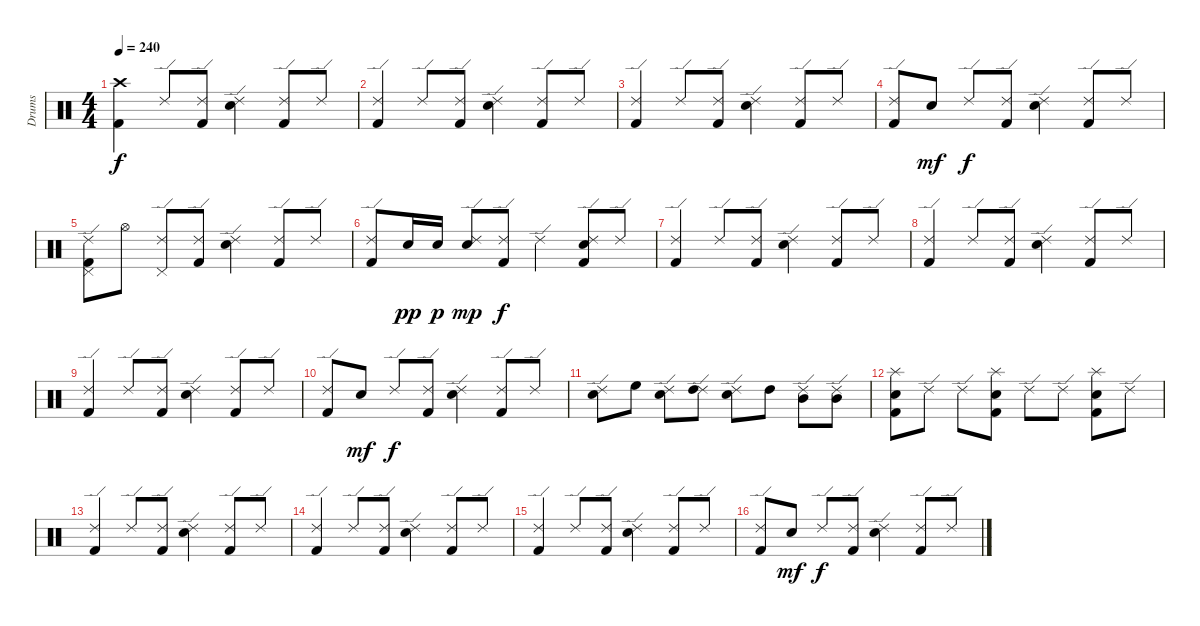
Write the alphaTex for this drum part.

\track ("Drums" "Drums") {instrument percussion}
\staff {score}
\articulation defaults
\ts (4 4)
\tempo 240
\clef neutral
\ks c
("Crash high (hit)" "Kick (hit) 2").4{dy f} "Ride (edge) 2".8 ("Ride (edge) 2" "Kick (hit) 2").8 ("Ride (edge) 2" "Electric Snare (hit)").4 ("Ride (edge) 2" "Kick (hit) 2").8 "Ride (edge) 2".8 |
("Ride (edge) 2" "Kick (hit) 2").4 "Ride (edge) 2".8 ("Ride (edge) 2" "Kick (hit) 2").8 ("Ride (edge) 2" "Electric Snare (hit)").4 ("Ride (edge) 2" "Kick (hit) 2").8 "Ride (edge) 2".8 |
("Ride (edge) 2" "Kick (hit) 2").4 "Ride (edge) 2".8 ("Ride (edge) 2" "Kick (hit) 2").8 ("Ride (edge) 2" "Electric Snare (hit)").4 ("Ride (edge) 2" "Kick (hit) 2").8 "Ride (edge) 2".8 |
("Ride (edge) 2" "Kick (hit) 2").8 "Electric Snare (hit)".8{dy mf} "Ride (edge) 2".8{dy f} ("Ride (edge) 2" "Kick (hit) 2").8 ("Ride (edge) 2" "Electric Snare (hit)").4 ("Ride (edge) 2" "Kick (hit) 2").8 "Ride (edge) 2".8 |
("Ride (edge) 2" "Pedal Hi-Hat (hit)" "Kick (hit) 2").8 "Hi-Hat (open)".8 ("Ride (edge) 2" "Pedal Hi-Hat (hit)").8 ("Ride (edge) 2" "Kick (hit) 2").8 ("Ride (edge) 2" "Electric Snare (hit)").4 ("Ride (edge) 2" "Kick (hit) 2").8 "Ride (edge) 2".8 |
("Ride (edge) 2" "Kick (hit) 2").8 "Electric Snare (hit)".16{dy pp} "Electric Snare (hit)".16{dy p} ("Ride (edge) 2" "Electric Snare (hit)").8{dy mp} ("Ride (edge) 2" "Kick (hit) 2").8{dy f} "Ride (edge) 2".4 ("Ride (edge) 2" "Electric Snare (hit)" "Kick (hit) 2").8 "Ride (edge) 2".8 |
("Ride (edge) 2" "Kick (hit) 2").4 "Ride (edge) 2".8 ("Ride (edge) 2" "Kick (hit) 2").8 ("Ride (edge) 2" "Electric Snare (hit)").4 ("Ride (edge) 2" "Kick (hit) 2").8 "Ride (edge) 2".8 |
("Ride (edge) 2" "Kick (hit) 2").4 "Ride (edge) 2".8 ("Ride (edge) 2" "Kick (hit) 2").8 ("Ride (edge) 2" "Electric Snare (hit)").4 ("Ride (edge) 2" "Kick (hit) 2").8 "Ride (edge) 2".8 |
("Ride (edge) 2" "Kick (hit) 2").4 "Ride (edge) 2".8 ("Ride (edge) 2" "Kick (hit) 2").8 ("Ride (edge) 2" "Electric Snare (hit)").4 ("Ride (edge) 2" "Kick (hit) 2").8 "Ride (edge) 2".8 |
("Ride (edge) 2" "Kick (hit) 2").8 "Electric Snare (hit)".8{dy mf} "Ride (edge) 2".8{dy f} ("Ride (edge) 2" "Kick (hit) 2").8 ("Ride (edge) 2" "Electric Snare (hit)").4 ("Ride (edge) 2" "Kick (hit) 2").8 "Ride (edge) 2".8 |
("Ride (edge) 2" "Electric Snare (hit)").8 "High Floor Tom (hit)".8 ("Ride (edge) 2" "Electric Snare (hit)").8 ("Ride (edge) 2" "High Tom (hit)").8 ("Ride (edge) 2" "Electric Snare (hit)").8 "High Tom (hit)".8 ("Ride (edge) 2" "Mid Tom (hit)").8 ("Ride (edge) 2" "Mid Tom (hit)").8 |
("Splash (hit)" "Electric Snare (hit)" "Kick (hit) 2").8 "Ride (edge) 2".8 "Ride (edge) 2".8 ("Splash (hit)" "Electric Snare (hit)" "Kick (hit) 2").8 "Ride (edge) 2".8 "Ride (edge) 2".8 ("Splash (hit)" "Electric Snare (hit)" "Kick (hit) 2").8 "Ride (edge) 2".8 |
("Ride (edge) 2" "Kick (hit) 2").4 "Ride (edge) 2".8 ("Ride (edge) 2" "Kick (hit) 2").8 ("Ride (edge) 2" "Electric Snare (hit)").4 ("Ride (edge) 2" "Kick (hit) 2").8 "Ride (edge) 2".8 |
("Ride (edge) 2" "Kick (hit) 2").4 "Ride (edge) 2".8 ("Ride (edge) 2" "Kick (hit) 2").8 ("Ride (edge) 2" "Electric Snare (hit)").4 ("Ride (edge) 2" "Kick (hit) 2").8 "Ride (edge) 2".8 |
("Ride (edge) 2" "Kick (hit) 2").4 "Ride (edge) 2".8 ("Ride (edge) 2" "Kick (hit) 2").8 ("Ride (edge) 2" "Electric Snare (hit)").4 ("Ride (edge) 2" "Kick (hit) 2").8 "Ride (edge) 2".8 |
("Ride (edge) 2" "Kick (hit) 2").8 "Electric Snare (hit)".8{dy mf} "Ride (edge) 2".8{dy f} ("Ride (edge) 2" "Kick (hit) 2").8 ("Ride (edge) 2" "Electric Snare (hit)").4 ("Ride (edge) 2" "Kick (hit) 2").8 "Ride (edge) 2".8
